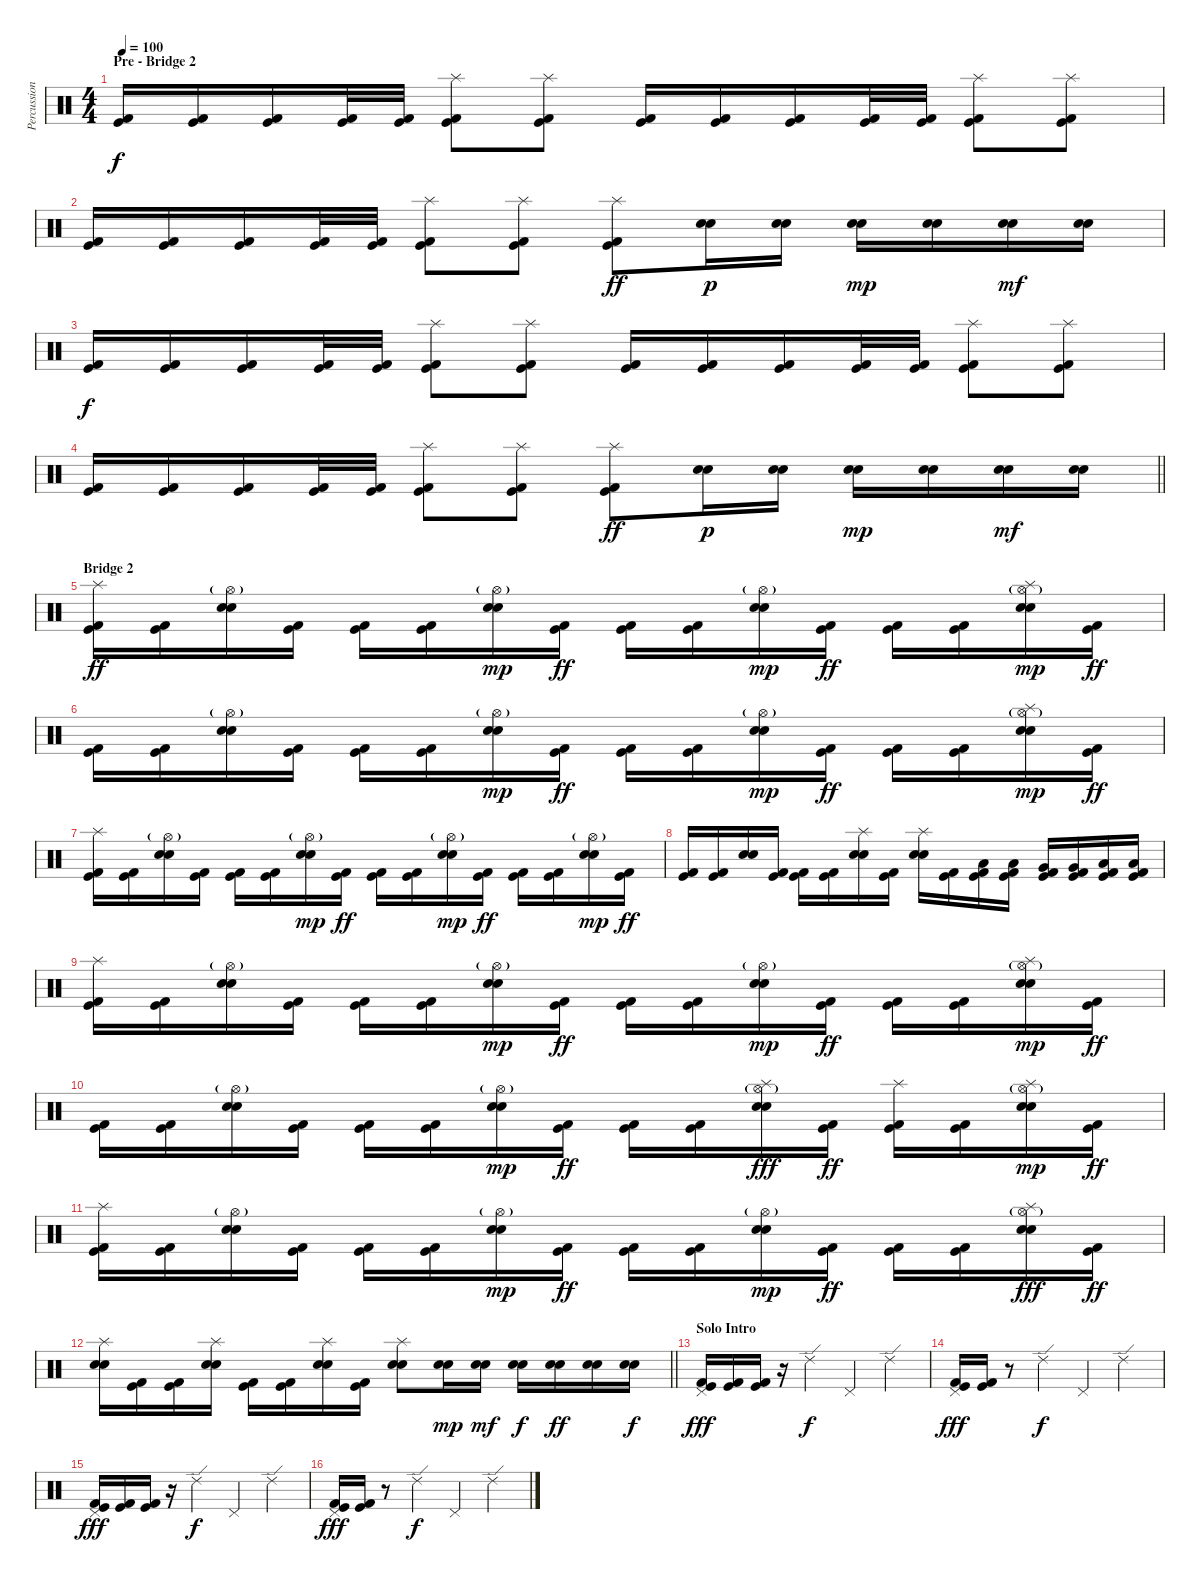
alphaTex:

\track ("Percussion" "Percussion") {instrument percussion}
\staff {score}
\articulation defaults
\ts (4 4)
\section ("" "Pre - Bridge 2")
\tempo 100
\clef neutral
\ks c
("Kick (hit)" "Kick (hit) 2").16{dy f} ("Kick (hit)" "Kick (hit) 2").16 ("Kick (hit)" "Kick (hit) 2").16 ("Kick (hit)" "Kick (hit) 2").32 ("Kick (hit)" "Kick (hit) 2").32 ("Splash (hit)" "Kick (hit)" "Kick (hit) 2").8 ("Splash (hit)" "Kick (hit)" "Kick (hit) 2").8 ("Kick (hit)" "Kick (hit) 2").16 ("Kick (hit)" "Kick (hit) 2").16 ("Kick (hit)" "Kick (hit) 2").16 ("Kick (hit)" "Kick (hit) 2").32 ("Kick (hit)" "Kick (hit) 2").32 ("Splash (hit)" "Kick (hit)" "Kick (hit) 2").8 ("Splash (hit)" "Kick (hit)" "Kick (hit) 2").8 |
("Kick (hit)" "Kick (hit) 2").16 ("Kick (hit)" "Kick (hit) 2").16 ("Kick (hit)" "Kick (hit) 2").16 ("Kick (hit)" "Kick (hit) 2").32 ("Kick (hit)" "Kick (hit) 2").32 ("Splash (hit)" "Kick (hit)" "Kick (hit) 2").8 ("Splash (hit)" "Kick (hit)" "Kick (hit) 2").8 ("Splash (hit)" "Kick (hit)" "Kick (hit) 2").8{dy ff} ("Snare (hit) 2" "Electric Snare (hit)").16{dy p} ("Snare (hit) 2" "Electric Snare (hit)").16 ("Snare (hit) 2" "Electric Snare (hit)").16{dy mp} ("Snare (hit) 2" "Electric Snare (hit)").16 ("Snare (hit) 2" "Electric Snare (hit)").16{dy mf} ("Snare (hit) 2" "Electric Snare (hit)").16 |
("Kick (hit)" "Kick (hit) 2").16{dy f} ("Kick (hit)" "Kick (hit) 2").16 ("Kick (hit)" "Kick (hit) 2").16 ("Kick (hit)" "Kick (hit) 2").32 ("Kick (hit)" "Kick (hit) 2").32 ("Splash (hit)" "Kick (hit)" "Kick (hit) 2").8 ("Splash (hit)" "Kick (hit)" "Kick (hit) 2").8 ("Kick (hit)" "Kick (hit) 2").16 ("Kick (hit)" "Kick (hit) 2").16 ("Kick (hit)" "Kick (hit) 2").16 ("Kick (hit)" "Kick (hit) 2").32 ("Kick (hit)" "Kick (hit) 2").32 ("Splash (hit)" "Kick (hit)" "Kick (hit) 2").8 ("Splash (hit)" "Kick (hit)" "Kick (hit) 2").8 |
\barLineRight lightlight
("Kick (hit)" "Kick (hit) 2").16 ("Kick (hit)" "Kick (hit) 2").16 ("Kick (hit)" "Kick (hit) 2").16 ("Kick (hit)" "Kick (hit) 2").32 ("Kick (hit)" "Kick (hit) 2").32 ("Splash (hit)" "Kick (hit)" "Kick (hit) 2").8 ("Splash (hit)" "Kick (hit)" "Kick (hit) 2").8 ("Splash (hit)" "Kick (hit)" "Kick (hit) 2").8{dy ff} ("Snare (hit) 2" "Electric Snare (hit)").16{dy p} ("Snare (hit) 2" "Electric Snare (hit)").16 ("Snare (hit) 2" "Electric Snare (hit)").16{dy mp} ("Snare (hit) 2" "Electric Snare (hit)").16 ("Snare (hit) 2" "Electric Snare (hit)").16{dy mf} ("Snare (hit) 2" "Electric Snare (hit)").16 |
\section ("" "Bridge 2")
("Splash (hit)" "Kick (hit)" "Kick (hit) 2").16{dy ff} ("Kick (hit)" "Kick (hit) 2").16 ("Hi-Hat (open)"{g} "Electric Snare (hit)" "Snare (hit) 2").16 ("Kick (hit)" "Kick (hit) 2").16 ("Kick (hit)" "Kick (hit) 2").16 ("Kick (hit)" "Kick (hit) 2").16 ("Hi-Hat (open)"{g} "Electric Snare (hit)" "Snare (hit) 2").16{dy mp} ("Kick (hit)" "Kick (hit) 2").16{dy ff} ("Kick (hit)" "Kick (hit) 2").16 ("Kick (hit)" "Kick (hit) 2").16 ("Hi-Hat (open)"{g} "Electric Snare (hit)" "Snare (hit) 2").16{dy mp} ("Kick (hit)" "Kick (hit) 2").16{dy ff} ("Kick (hit)" "Kick (hit) 2").16 ("Kick (hit)" "Kick (hit) 2").16 ("Hi-Hat (open)"{g} "Electric Snare (hit)" "Snare (hit) 2" "Splash (hit)").16{dy mp} ("Kick (hit)" "Kick (hit) 2").16{dy ff} |
("Kick (hit)" "Kick (hit) 2").16 ("Kick (hit)" "Kick (hit) 2").16 ("Hi-Hat (open)"{g} "Electric Snare (hit)" "Snare (hit) 2").16 ("Kick (hit)" "Kick (hit) 2").16 ("Kick (hit)" "Kick (hit) 2").16 ("Kick (hit)" "Kick (hit) 2").16 ("Hi-Hat (open)"{g} "Electric Snare (hit)" "Snare (hit) 2").16{dy mp} ("Kick (hit)" "Kick (hit) 2").16{dy ff} ("Kick (hit)" "Kick (hit) 2").16 ("Kick (hit)" "Kick (hit) 2").16 ("Hi-Hat (open)"{g} "Electric Snare (hit)" "Snare (hit) 2").16{dy mp} ("Kick (hit)" "Kick (hit) 2").16{dy ff} ("Kick (hit)" "Kick (hit) 2").16 ("Kick (hit)" "Kick (hit) 2").16 ("Hi-Hat (open)"{g} "Electric Snare (hit)" "Snare (hit) 2" "Splash (hit)").16{dy mp} ("Kick (hit)" "Kick (hit) 2").16{dy ff} |
("Splash (hit)" "Kick (hit)" "Kick (hit) 2").16 ("Kick (hit)" "Kick (hit) 2").16 ("Hi-Hat (open)"{g} "Electric Snare (hit)" "Snare (hit) 2").16 ("Kick (hit)" "Kick (hit) 2").16 ("Kick (hit)" "Kick (hit) 2").16 ("Kick (hit)" "Kick (hit) 2").16 ("Hi-Hat (open)"{g} "Electric Snare (hit)" "Snare (hit) 2").16{dy mp} ("Kick (hit)" "Kick (hit) 2").16{dy ff} ("Kick (hit)" "Kick (hit) 2").16 ("Kick (hit)" "Kick (hit) 2").16 ("Hi-Hat (open)"{g} "Electric Snare (hit)" "Snare (hit) 2").16{dy mp} ("Kick (hit)" "Kick (hit) 2").16{dy ff} ("Kick (hit)" "Kick (hit) 2").16 ("Kick (hit)" "Kick (hit) 2").16 ("Hi-Hat (open)"{g} "Electric Snare (hit)" "Snare (hit) 2").16{dy mp} ("Kick (hit)" "Kick (hit) 2").16{dy ff} |
("Kick (hit)" "Kick (hit) 2").16 ("Kick (hit)" "Kick (hit) 2").16 ("Electric Snare (hit)" "Snare (hit) 2").16 ("Kick (hit)" "Kick (hit) 2").16 ("Kick (hit)" "Kick (hit) 2").16 ("Kick (hit)" "Kick (hit) 2").16 ("Splash (hit)" "Electric Snare (hit)" "Snare (hit) 2").16 ("Kick (hit)" "Kick (hit) 2").16 ("Splash (hit)" "Electric Snare (hit)" "Snare (hit) 2").16 ("Kick (hit)" "Kick (hit) 2").16 ("Low Tom (hit)" "Kick (hit)" "Kick (hit) 2").16 ("Low Tom (hit)" "Kick (hit)" "Kick (hit) 2").16 ("Very Low Tom (hit)" "Kick (hit)" "Kick (hit) 2").16 ("Very Low Tom (hit)" "Kick (hit)" "Kick (hit) 2").16 ("Low Floor Tom (hit)" "Kick (hit)" "Kick (hit) 2").16 ("Low Floor Tom (hit)" "Kick (hit)" "Kick (hit) 2").16 |
("Splash (hit)" "Kick (hit)" "Kick (hit) 2").16 ("Kick (hit)" "Kick (hit) 2").16 ("Hi-Hat (open)"{g} "Electric Snare (hit)" "Snare (hit) 2").16 ("Kick (hit)" "Kick (hit) 2").16 ("Kick (hit)" "Kick (hit) 2").16 ("Kick (hit)" "Kick (hit) 2").16 ("Hi-Hat (open)"{g} "Electric Snare (hit)" "Snare (hit) 2").16{dy mp} ("Kick (hit)" "Kick (hit) 2").16{dy ff} ("Kick (hit)" "Kick (hit) 2").16 ("Kick (hit)" "Kick (hit) 2").16 ("Hi-Hat (open)"{g} "Electric Snare (hit)" "Snare (hit) 2").16{dy mp} ("Kick (hit)" "Kick (hit) 2").16{dy ff} ("Kick (hit)" "Kick (hit) 2").16 ("Kick (hit)" "Kick (hit) 2").16 ("Hi-Hat (open)"{g} "Electric Snare (hit)" "Snare (hit) 2" "Splash (hit)").16{dy mp} ("Kick (hit)" "Kick (hit) 2").16{dy ff} |
("Kick (hit)" "Kick (hit) 2").16 ("Kick (hit)" "Kick (hit) 2").16 ("Hi-Hat (open)"{g} "Electric Snare (hit)" "Snare (hit) 2").16 ("Kick (hit)" "Kick (hit) 2").16 ("Kick (hit)" "Kick (hit) 2").16 ("Kick (hit)" "Kick (hit) 2").16 ("Hi-Hat (open)"{g} "Electric Snare (hit)" "Snare (hit) 2").16{dy mp} ("Kick (hit)" "Kick (hit) 2").16{dy ff} ("Kick (hit)" "Kick (hit) 2").16 ("Kick (hit)" "Kick (hit) 2").16 ("Hi-Hat (open)"{g} "Electric Snare (hit)" "Snare (hit) 2" "Splash (hit)").16{dy fff} ("Kick (hit)" "Kick (hit) 2").16{dy ff} ("Splash (hit)" "Kick (hit)" "Kick (hit) 2").16 ("Kick (hit)" "Kick (hit) 2").16 ("Hi-Hat (open)"{g} "Electric Snare (hit)" "Snare (hit) 2" "Splash (hit)").16{dy mp} ("Kick (hit)" "Kick (hit) 2").16{dy ff} |
("Splash (hit)" "Kick (hit)" "Kick (hit) 2").16 ("Kick (hit)" "Kick (hit) 2").16 ("Hi-Hat (open)"{g} "Electric Snare (hit)" "Snare (hit) 2").16 ("Kick (hit)" "Kick (hit) 2").16 ("Kick (hit)" "Kick (hit) 2").16 ("Kick (hit)" "Kick (hit) 2").16 ("Hi-Hat (open)"{g} "Electric Snare (hit)" "Snare (hit) 2").16{dy mp} ("Kick (hit)" "Kick (hit) 2").16{dy ff} ("Kick (hit)" "Kick (hit) 2").16 ("Kick (hit)" "Kick (hit) 2").16 ("Hi-Hat (open)"{g} "Electric Snare (hit)" "Snare (hit) 2").16{dy mp} ("Kick (hit)" "Kick (hit) 2").16{dy ff} ("Kick (hit)" "Kick (hit) 2").16 ("Kick (hit)" "Kick (hit) 2").16 ("Hi-Hat (open)"{g} "Electric Snare (hit)" "Snare (hit) 2" "Splash (hit)").16{dy fff} ("Kick (hit)" "Kick (hit) 2").16{dy ff} |
\barLineRight lightlight
("Splash (hit)" "Electric Snare (hit)" "Snare (hit) 2").16 ("Kick (hit)" "Kick (hit) 2").16 ("Kick (hit)" "Kick (hit) 2").16 ("Splash (hit)" "Electric Snare (hit)" "Snare (hit) 2").16 ("Kick (hit)" "Kick (hit) 2").16 ("Kick (hit)" "Kick (hit) 2").16 ("Splash (hit)" "Electric Snare (hit)" "Snare (hit) 2").16 ("Kick (hit)" "Kick (hit) 2").16 ("Splash (hit)" "Electric Snare (hit)" "Snare (hit) 2").8 ("Electric Snare (hit)" "Snare (hit) 2").16{dy mp} ("Electric Snare (hit)" "Snare (hit) 2").16{dy mf} ("Electric Snare (hit)" "Snare (hit) 2").16{dy f} ("Electric Snare (hit)" "Snare (hit) 2").16{dy ff} ("Electric Snare (hit)" "Snare (hit) 2").16 ("Electric Snare (hit)" "Snare (hit) 2").16{dy f} |
\section ("" "Solo Intro")
("Pedal Hi-Hat (hit)" "Kick (hit)" "Kick (hit) 2").16{dy fff} ("Kick (hit)" "Kick (hit) 2").16 ("Kick (hit)" "Kick (hit) 2").16 r.16 "Ride (edge) 2".4{dy f} "Pedal Hi-Hat (hit)".4 "Ride (edge) 2".4 |
("Pedal Hi-Hat (hit)" "Kick (hit)" "Kick (hit) 2").16{dy fff} ("Kick (hit)" "Kick (hit) 2").16 r.8 "Ride (edge) 2".4{dy f} "Pedal Hi-Hat (hit)".4 "Ride (edge) 2".4 |
("Pedal Hi-Hat (hit)" "Kick (hit)" "Kick (hit) 2").16{dy fff} ("Kick (hit)" "Kick (hit) 2").16 ("Kick (hit)" "Kick (hit) 2").16 r.16 "Ride (edge) 2".4{dy f} "Pedal Hi-Hat (hit)".4 "Ride (edge) 2".4 |
("Pedal Hi-Hat (hit)" "Kick (hit)" "Kick (hit) 2").16{dy fff} ("Kick (hit)" "Kick (hit) 2").16 r.8 "Ride (edge) 2".4{dy f} "Pedal Hi-Hat (hit)".4 "Ride (edge) 2".4
